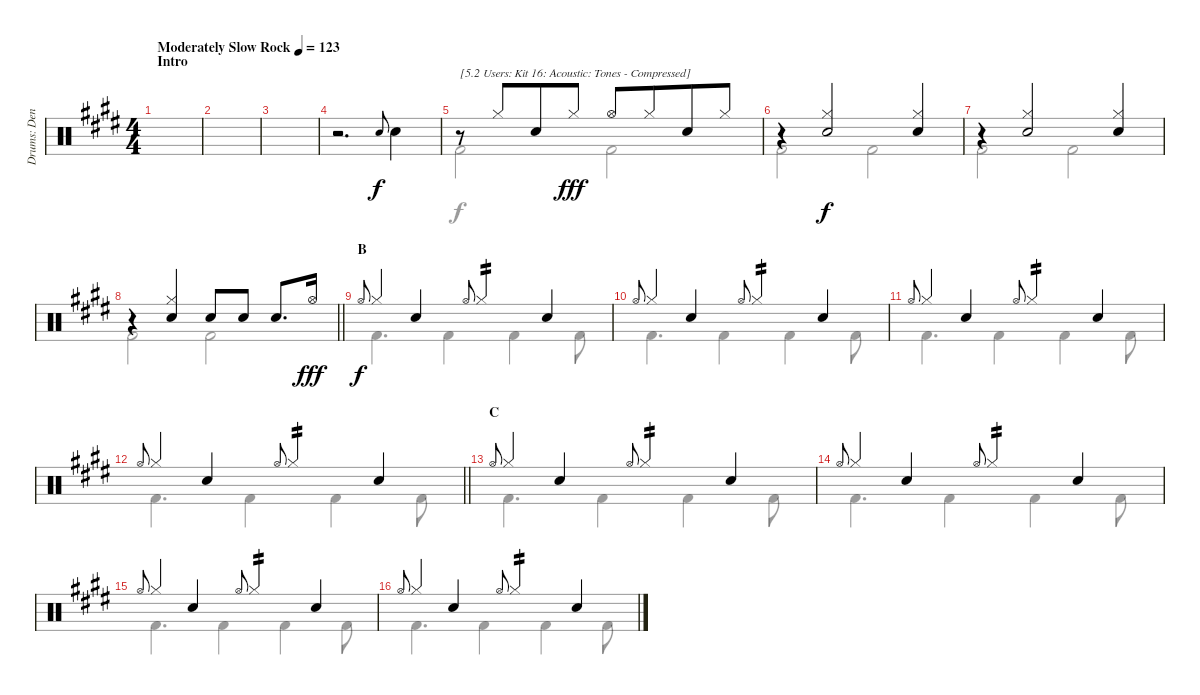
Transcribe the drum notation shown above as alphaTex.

\track ("Drums: Denny" "Drums: Den") {instrument percussion}
\staff {score}
\articulation defaults
\voice
\ts (4 4)
\section ("" "Intro")
\tempo (123 "Moderately Slow Rock")
\clef neutral
\ks e
|
|
|
r.2{d} "Electric Snare (hit)".8{gr onbeat} "Snare (hit) 2".4 |
r.8{txt "[5.2 Users: Kit 16: Acoustic: Tones - Compressed]"} "Hi-Hat (closed)".8{dy f beam merge} "Snare (hit) 2".8 "Hi-Hat (closed)".8{dy fff} "Hi-Hat (open)".8 "Hi-Hat (closed)".8{beam merge} "Snare (hit) 2".8 "Hi-Hat (closed)".8 |
r.4 ("Hi-Hat (closed)" "Snare (hit) 2").2{dy f} ("Hi-Hat (closed)" "Snare (hit) 2").4 |
r.4 ("Hi-Hat (closed)" "Snare (hit) 2").2 ("Hi-Hat (closed)" "Snare (hit) 2").4 |
\barLineRight lightlight
r.4 ("Hi-Hat (closed)" "Snare (hit) 2").4 "Snare (hit) 2".8 "Snare (hit) 2".8 "Snare (hit) 2".8{d} "Hi-Hat (open)".16{dy fff} |
\section ("" "B")
"Hi-Hat (open)".8{gr onbeat dy f} "Hi-Hat (closed)".4 "Snare (hit) 2".4 "Hi-Hat (open)".8{gr onbeat} "Hi-Hat (closed)".4{tp 2} "Snare (hit) 2".4 |
"Hi-Hat (open)".8{gr onbeat} "Hi-Hat (closed)".4 "Snare (hit) 2".4 "Hi-Hat (open)".8{gr onbeat} "Hi-Hat (closed)".4{tp 2} "Snare (hit) 2".4 |
"Hi-Hat (open)".8{gr onbeat} "Hi-Hat (closed)".4 "Snare (hit) 2".4 "Hi-Hat (open)".8{gr onbeat} "Hi-Hat (closed)".4{tp 2} "Snare (hit) 2".4 |
\barLineRight lightlight "Hi-Hat (open)".8{gr onbeat} "Hi-Hat (closed)".4 "Snare (hit) 2".4 "Hi-Hat (open)".8{gr onbeat} "Hi-Hat (closed)".4{tp 2} "Snare (hit) 2".4
|
\section ("" "C")
"Hi-Hat (open)".8{gr onbeat} "Hi-Hat (closed)".4 "Snare (hit) 2".4 "Hi-Hat (open)".8{gr onbeat} "Hi-Hat (closed)".4{tp 2} "Snare (hit) 2".4 |
"Hi-Hat (open)".8{gr onbeat} "Hi-Hat (closed)".4 "Snare (hit) 2".4 "Hi-Hat (open)".8{gr onbeat} "Hi-Hat (closed)".4{tp 2} "Snare (hit) 2".4 |
"Hi-Hat (open)".8{gr onbeat} "Hi-Hat (closed)".4 "Snare (hit) 2".4 "Hi-Hat (open)".8{gr onbeat} "Hi-Hat (closed)".4{tp 2} "Snare (hit) 2".4 |
"Hi-Hat (open)".8{gr onbeat} "Hi-Hat (closed)".4 "Snare (hit) 2".4 "Hi-Hat (open)".8{gr onbeat} "Hi-Hat (closed)".4{tp 2} "Snare (hit) 2".4
\voice
\clef neutral
\ottava regular
\simile none
\ks e
|
|
|
|
"Kick (hit) 2".2 "Kick (hit) 2".2 |
"Kick (hit) 2".2 "Kick (hit) 2".2 |
"Kick (hit) 2".2 "Kick (hit) 2".2 |
\barLineRight lightlight "Kick (hit) 2".2 "Kick (hit) 2".2
|
"Kick (hit) 2".4{d} "Kick (hit) 2".4 "Kick (hit) 2".4 "Kick (hit) 2".8 |
"Kick (hit) 2".4{d} "Kick (hit) 2".4 "Kick (hit) 2".4 "Kick (hit) 2".8 |
"Kick (hit) 2".4{d} "Kick (hit) 2".4 "Kick (hit) 2".4 "Kick (hit) 2".8 |
\barLineRight lightlight "Kick (hit) 2".4{d} "Kick (hit) 2".4 "Kick (hit) 2".4 "Kick (hit) 2".8
|
"Kick (hit) 2".4{d} "Kick (hit) 2".4 "Kick (hit) 2".4 "Kick (hit) 2".8 |
"Kick (hit) 2".4{d} "Kick (hit) 2".4 "Kick (hit) 2".4 "Kick (hit) 2".8 |
"Kick (hit) 2".4{d} "Kick (hit) 2".4 "Kick (hit) 2".4 "Kick (hit) 2".8 |
"Kick (hit) 2".4{d} "Kick (hit) 2".4 "Kick (hit) 2".4 "Kick (hit) 2".8
